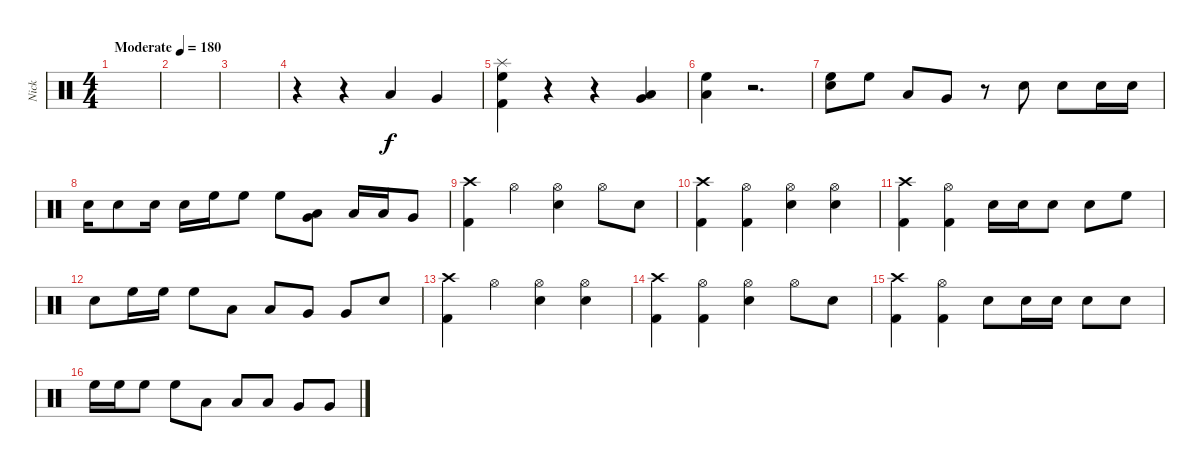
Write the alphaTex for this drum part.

\track ("Nick" "Nick") {instrument percussion}
\staff {score}
\articulation defaults
\ts (4 4)
\tempo (180 "Moderate")
\clef neutral
\ks c
|
|
|
r.4 r.4 "Low Tom (hit)".4 "Very Low Tom (hit)".4 |
("Splash (hit)" "High Floor Tom (hit)" "Kick (hit) 2").4 r.4 r.4 ("Low Tom (hit)" "Very Low Tom (hit)").4 |
("High Floor Tom (hit)" "Low Tom (hit)").4 r.2{d} |
("High Floor Tom (hit)" "Snare (hit) 2").8 "High Floor Tom (hit)".8 "Low Tom (hit)".8 "Very Low Tom (hit)".8 r.8 "Snare (hit) 2".8 "Snare (hit) 2".8 "Snare (hit) 2".16 "Snare (hit) 2".16 |
"Snare (hit) 2".16 "Snare (hit) 2".8 "Snare (hit) 2".16 "Snare (hit) 2".16 "High Floor Tom (hit)".16 "High Floor Tom (hit)".8 "High Floor Tom (hit)".8 ("Low Tom (hit)" "Very Low Tom (hit)").8 "Low Tom (hit)".16 "Low Tom (hit)".16 "Very Low Tom (hit)".8 |
("Crash high (hit)" "Kick (hit) 2").4 "Hi-Hat (open)".4 ("Hi-Hat (open)" "Snare (hit) 2").4 "Hi-Hat (open)".8 "Snare (hit) 2".8 |
("Crash high (hit)" "Kick (hit) 2").4 ("Hi-Hat (open)" "Kick (hit) 2").4 ("Hi-Hat (open)" "Snare (hit) 2").4 ("Hi-Hat (open)" "Snare (hit) 2").4 |
("Crash high (hit)" "Kick (hit) 2").4 ("Hi-Hat (open)" "Kick (hit) 2").4 "Snare (hit) 2".16 "Snare (hit) 2".16 "Snare (hit) 2".8 "Snare (hit) 2".8 "High Floor Tom (hit)".8 |
"Snare (hit) 2".8 "High Floor Tom (hit)".16 "High Floor Tom (hit)".16 "High Floor Tom (hit)".8 "Low Tom (hit)".8 "Low Tom (hit)".8 "Very Low Tom (hit)".8 "Very Low Tom (hit)".8 "Snare (hit) 2".8 |
("Crash high (hit)" "Kick (hit) 2").4 "Hi-Hat (open)".4 ("Hi-Hat (open)" "Snare (hit) 2").4 ("Hi-Hat (open)" "Snare (hit) 2").4 |
("Crash high (hit)" "Kick (hit) 2").4 ("Hi-Hat (open)" "Kick (hit) 2").4 ("Hi-Hat (open)" "Snare (hit) 2").4 "Hi-Hat (open)".8 "Snare (hit) 2".8 |
("Crash high (hit)" "Kick (hit) 2").4 ("Hi-Hat (open)" "Kick (hit) 2").4 "Snare (hit) 2".8 "Snare (hit) 2".16 "Snare (hit) 2".16 "Snare (hit) 2".8 "Snare (hit) 2".8 |
"High Floor Tom (hit)".16 "High Floor Tom (hit)".16 "High Floor Tom (hit)".8 "High Floor Tom (hit)".8 "Low Tom (hit)".8 "Low Tom (hit)".8 "Low Tom (hit)".8 "Very Low Tom (hit)".8 "Very Low Tom (hit)".8
